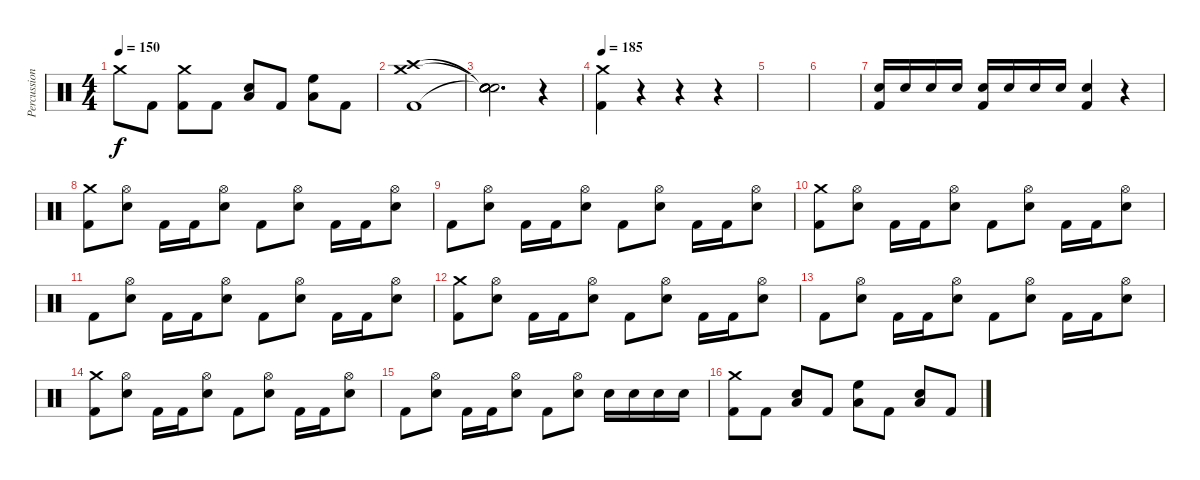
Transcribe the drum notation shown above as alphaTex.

\track ("Percussion" "Percussion") {instrument percussion}
\staff {score}
\articulation defaults
\ts (4 4)
\tempo 150
\clef neutral
\ks c "Crash medium (hit)".8{dy f} "Kick (hit) 2".8
("Crash medium (hit)" "Kick (hit) 2").8 "Kick (hit) 2".8 ("Low Floor Tom (hit)" "Snare (hit) 2").8 "Kick (hit) 2".8 ("Low Floor Tom (hit)" "High Floor Tom (hit)").8 "Kick (hit) 2".8 |
("Crash medium (hit)" "Crash high (hit)" "Kick (hit) 2").1 |
("Snare (hit)"{t} "Snare (hit)"{t} "Snare (hit)"{t} "Snare (hit)" "Snare (hit)" "Snare (hit)").2{d} r.4 |
\tempo 185
("Crash medium (hit)" "Kick (hit) 2").4 r.4 r.4 r.4 |
|
|
("Snare (hit) 2" "Kick (hit) 2").16 "Snare (hit) 2".16 "Snare (hit) 2".16 "Snare (hit) 2".16 ("Snare (hit) 2" "Kick (hit) 2").16 "Snare (hit) 2".16 "Snare (hit) 2".16 "Snare (hit) 2".16 ("Snare (hit) 2" "Kick (hit) 2").4 r.4 |
("Crash medium (hit)" "Kick (hit) 2").8 ("Hi-Hat (open)" "Snare (hit) 2").8 "Kick (hit) 2".16 "Kick (hit) 2".16 ("Hi-Hat (open)" "Snare (hit) 2").8 "Kick (hit) 2".8 ("Hi-Hat (open)" "Snare (hit) 2").8 "Kick (hit) 2".16 "Kick (hit) 2".16 ("Hi-Hat (open)" "Snare (hit) 2").8 |
"Kick (hit) 2".8 ("Hi-Hat (open)" "Snare (hit) 2").8 "Kick (hit) 2".16 "Kick (hit) 2".16 ("Hi-Hat (open)" "Snare (hit) 2").8 "Kick (hit) 2".8 ("Hi-Hat (open)" "Snare (hit) 2").8 "Kick (hit) 2".16 "Kick (hit) 2".16 ("Hi-Hat (open)" "Snare (hit) 2").8 |
("Crash medium (hit)" "Kick (hit) 2").8 ("Hi-Hat (open)" "Snare (hit) 2").8 "Kick (hit) 2".16 "Kick (hit) 2".16 ("Hi-Hat (open)" "Snare (hit) 2").8 "Kick (hit) 2".8 ("Hi-Hat (open)" "Snare (hit) 2").8 "Kick (hit) 2".16 "Kick (hit) 2".16 ("Hi-Hat (open)" "Snare (hit) 2").8 |
"Kick (hit) 2".8 ("Hi-Hat (open)" "Snare (hit) 2").8 "Kick (hit) 2".16 "Kick (hit) 2".16 ("Hi-Hat (open)" "Snare (hit) 2").8 "Kick (hit) 2".8 ("Hi-Hat (open)" "Snare (hit) 2").8 "Kick (hit) 2".16 "Kick (hit) 2".16 ("Hi-Hat (open)" "Snare (hit) 2").8 |
("Crash medium (hit)" "Kick (hit) 2").8 ("Hi-Hat (open)" "Snare (hit) 2").8 "Kick (hit) 2".16 "Kick (hit) 2".16 ("Hi-Hat (open)" "Snare (hit) 2").8 "Kick (hit) 2".8 ("Hi-Hat (open)" "Snare (hit) 2").8 "Kick (hit) 2".16 "Kick (hit) 2".16 ("Hi-Hat (open)" "Snare (hit) 2").8 |
"Kick (hit) 2".8 ("Hi-Hat (open)" "Snare (hit) 2").8 "Kick (hit) 2".16 "Kick (hit) 2".16 ("Hi-Hat (open)" "Snare (hit) 2").8 "Kick (hit) 2".8 ("Hi-Hat (open)" "Snare (hit) 2").8 "Kick (hit) 2".16 "Kick (hit) 2".16 ("Hi-Hat (open)" "Snare (hit) 2").8 |
("Crash medium (hit)" "Kick (hit) 2").8 ("Hi-Hat (open)" "Snare (hit) 2").8 "Kick (hit) 2".16 "Kick (hit) 2".16 ("Hi-Hat (open)" "Snare (hit) 2").8 "Kick (hit) 2".8 ("Hi-Hat (open)" "Snare (hit) 2").8 "Kick (hit) 2".16 "Kick (hit) 2".16 ("Hi-Hat (open)" "Snare (hit) 2").8 |
"Kick (hit) 2".8 ("Hi-Hat (open)" "Snare (hit) 2").8 "Kick (hit) 2".16 "Kick (hit) 2".16 ("Hi-Hat (open)" "Snare (hit) 2").8 "Kick (hit) 2".8 ("Hi-Hat (open)" "Snare (hit) 2").8 "Snare (hit) 2".16 "Snare (hit) 2".16 "Snare (hit) 2".16 "Snare (hit) 2".16 |
("Crash medium (hit)" "Kick (hit) 2").8 "Kick (hit) 2".8 ("Snare (hit) 2" "Low Floor Tom (hit)").8 "Kick (hit) 2".8 ("High Floor Tom (hit)" "Low Floor Tom (hit)").8 "Kick (hit) 2".8 ("Snare (hit) 2" "Low Floor Tom (hit)").8 "Kick (hit) 2".8
